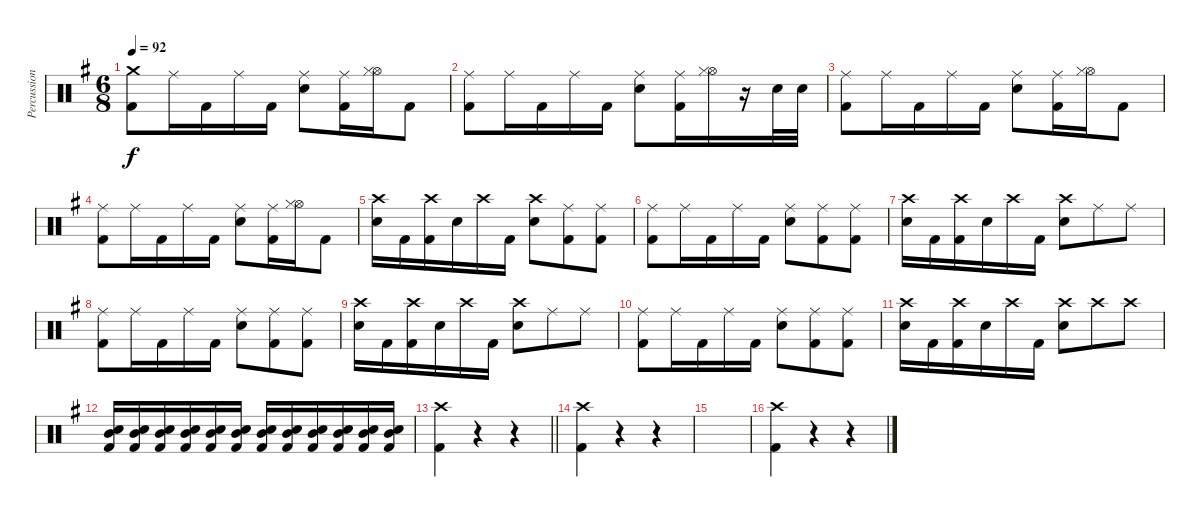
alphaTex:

\track ("Percussion" "Percussion") {instrument percussion}
\staff {score}
\articulation defaults
\ts (6 8)
\tempo 92
\clef neutral
\ks g
("Kick (hit) 2" "Crash medium (hit)").8{dy f} "Ride (middle)".16 "Kick (hit) 2".16 "Ride (middle)".16 "Kick (hit) 2".16 ("Electric Snare (hit)" "Ride (middle)").8 ("Kick (hit) 2" "Ride (middle)").16 ("Hi-Hat (open)" "Hi-Hat (closed)").16 "Kick (hit) 2".8 |
("Kick (hit) 2" "Ride (middle)").8 "Ride (middle)".16 "Kick (hit) 2".16 "Ride (middle)".16 "Kick (hit) 2".16 ("Electric Snare (hit)" "Ride (middle)").8 ("Kick (hit) 2" "Ride (middle)").16 ("Hi-Hat (open)" "Hi-Hat (closed)").16 r.16 "Electric Snare (hit)".32 "Electric Snare (hit)".32 |
("Kick (hit) 2" "Ride (middle)").8 "Ride (middle)".16 "Kick (hit) 2".16 "Ride (middle)".16 "Kick (hit) 2".16 ("Electric Snare (hit)" "Ride (middle)").8 ("Kick (hit) 2" "Ride (middle)").16 ("Hi-Hat (open)" "Hi-Hat (closed)").16 "Kick (hit) 2".8 |
("Kick (hit) 2" "Ride (middle)").8 "Ride (middle)".16 "Kick (hit) 2".16 "Ride (middle)".16 "Kick (hit) 2".16 ("Electric Snare (hit)" "Ride (middle)").8 ("Kick (hit) 2" "Ride (middle)").16 ("Hi-Hat (open)" "Hi-Hat (closed)").16 "Kick (hit) 2".8 |
("Electric Snare (hit)" "Crash high (hit)").16 "Kick (hit) 2".16 ("Crash high (hit)" "Kick (hit) 2").16 "Electric Snare (hit)".16 "Crash high (hit)".16 "Kick (hit) 2".16 ("Crash high (hit)" "Electric Snare (hit)").8 ("Ride (middle)" "Kick (hit) 2").8 ("Ride (middle)" "Kick (hit) 2").8 |
("Kick (hit) 2" "Ride (middle)").8 "Ride (middle)".16 "Kick (hit) 2".16 "Ride (middle)".16 "Kick (hit) 2".16 ("Electric Snare (hit)" "Ride (middle)").8 ("Kick (hit) 2" "Ride (middle)").8 ("Kick (hit) 2" "Ride (middle)").8 |
("Electric Snare (hit)" "Crash high (hit)").16 "Kick (hit) 2".16 ("Crash high (hit)" "Kick (hit) 2").16 "Electric Snare (hit)".16 "Crash high (hit)".16 "Kick (hit) 2".16 ("Crash high (hit)" "Electric Snare (hit)").8 "Ride (middle)".8 "Ride (middle)".8 |
("Kick (hit) 2" "Ride (middle)").8 "Ride (middle)".16 "Kick (hit) 2".16 "Ride (middle)".16 "Kick (hit) 2".16 ("Electric Snare (hit)" "Ride (middle)").8 ("Kick (hit) 2" "Ride (middle)").8 ("Kick (hit) 2" "Ride (middle)").8 |
("Electric Snare (hit)" "Crash high (hit)").16 "Kick (hit) 2".16 ("Crash high (hit)" "Kick (hit) 2").16 "Electric Snare (hit)".16 "Crash high (hit)".16 "Kick (hit) 2".16 ("Crash high (hit)" "Electric Snare (hit)").8 "Ride (middle)".8 "Ride (middle)".8 |
("Kick (hit) 2" "Ride (middle)").8 "Ride (middle)".16 "Kick (hit) 2".16 "Ride (middle)".16 "Kick (hit) 2".16 ("Electric Snare (hit)" "Ride (middle)").8 ("Kick (hit) 2" "Ride (middle)").8 ("Kick (hit) 2" "Ride (middle)").8 |
("Electric Snare (hit)" "Crash high (hit)").16 "Kick (hit) 2".16 ("Crash high (hit)" "Kick (hit) 2").16 "Electric Snare (hit)".16 "Crash high (hit)".16 "Kick (hit) 2".16 ("Crash high (hit)" "Electric Snare (hit)").8 "Crash high (hit)".8 "Crash high (hit)".8 |
("Kick (hit) 2" "Electric Snare (hit)" "Mid Tom (hit)").16 ("Kick (hit) 2" "Electric Snare (hit)" "Mid Tom (hit)").16 ("Kick (hit) 2" "Electric Snare (hit)" "Mid Tom (hit)").16 ("Kick (hit) 2" "Electric Snare (hit)" "Mid Tom (hit)").16 ("Kick (hit) 2" "Electric Snare (hit)" "Mid Tom (hit)").16 ("Kick (hit) 2" "Electric Snare (hit)" "Mid Tom (hit)").16 ("Kick (hit) 2" "Electric Snare (hit)" "Mid Tom (hit)").16 ("Kick (hit) 2" "Electric Snare (hit)" "Mid Tom (hit)").16 ("Kick (hit) 2" "Electric Snare (hit)" "Mid Tom (hit)").16 ("Kick (hit) 2" "Electric Snare (hit)" "Mid Tom (hit)").16 ("Kick (hit) 2" "Electric Snare (hit)" "Mid Tom (hit)").16 ("Kick (hit) 2" "Electric Snare (hit)" "Mid Tom (hit)").16 |
\barLineRight lightlight
("Crash high (hit)" "Kick (hit) 2").4 r.4 r.4 |
("Crash high (hit)" "Kick (hit) 2").4 r.4 r.4 |
|
("Crash high (hit)" "Kick (hit) 2").4 r.4 r.4
